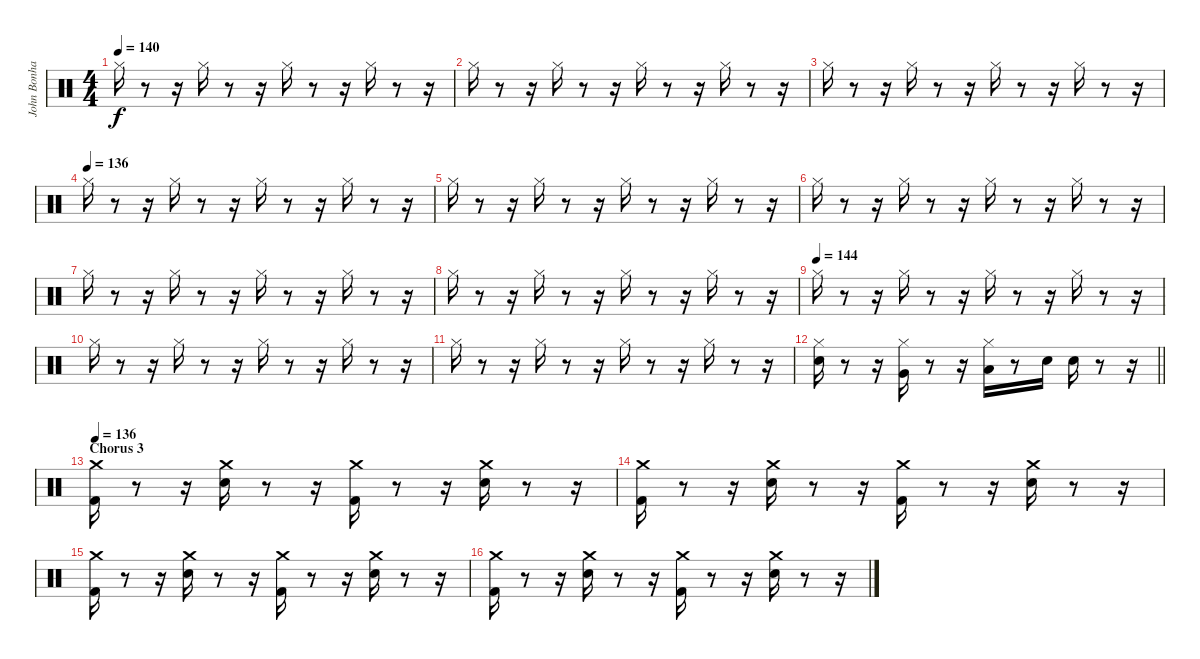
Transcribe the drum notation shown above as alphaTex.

\track ("John Bonham" "John Bonha") {instrument percussion}
\staff {score}
\articulation defaults
\ts (4 4)
\tempo 140
\clef neutral
\ks aminor "Hi-Hat (closed)".16{dy f}
r.8 r.16 "Hi-Hat (closed)".16 r.8 r.16 "Hi-Hat (closed)".16 r.8 r.16 "Hi-Hat (closed)".16 r.8 r.16 |
"Hi-Hat (closed)".16 r.8 r.16 "Hi-Hat (closed)".16 r.8 r.16 "Hi-Hat (closed)".16 r.8 r.16 "Hi-Hat (closed)".16 r.8 r.16 |
"Hi-Hat (closed)".16 r.8 r.16 "Hi-Hat (closed)".16 r.8 r.16 "Hi-Hat (closed)".16 r.8 r.16 "Hi-Hat (closed)".16 r.8 r.16 |
\tempo (136)
"Hi-Hat (closed)".16 r.8 r.16 "Hi-Hat (closed)".16 r.8 r.16 "Hi-Hat (closed)".16 r.8 r.16 "Hi-Hat (closed)".16 r.8 r.16 |
"Hi-Hat (closed)".16 r.8 r.16 "Hi-Hat (closed)".16 r.8 r.16 "Hi-Hat (closed)".16 r.8 r.16 "Hi-Hat (closed)".16 r.8 r.16 |
"Hi-Hat (closed)".16 r.8 r.16 "Hi-Hat (closed)".16 r.8 r.16 "Hi-Hat (closed)".16 r.8 r.16 "Hi-Hat (closed)".16 r.8 r.16 |
"Hi-Hat (closed)".16 r.8 r.16 "Hi-Hat (closed)".16 r.8 r.16 "Hi-Hat (closed)".16 r.8 r.16 "Hi-Hat (closed)".16 r.8 r.16 |
"Hi-Hat (closed)".16 r.8 r.16 "Hi-Hat (closed)".16 r.8 r.16 "Hi-Hat (closed)".16 r.8 r.16 "Hi-Hat (closed)".16 r.8 r.16 |
\tempo (144)
"Hi-Hat (closed)".16 r.8 r.16 "Hi-Hat (closed)".16 r.8 r.16 "Hi-Hat (closed)".16 r.8 r.16 "Hi-Hat (closed)".16 r.8 r.16 |
"Hi-Hat (closed)".16 r.8 r.16 "Hi-Hat (closed)".16 r.8 r.16 "Hi-Hat (closed)".16 r.8 r.16 "Hi-Hat (closed)".16 r.8 r.16 |
"Hi-Hat (closed)".16 r.8 r.16 "Hi-Hat (closed)".16 r.8 r.16 "Hi-Hat (closed)".16 r.8 r.16 "Hi-Hat (closed)".16 r.8 r.16 |
\barLineRight lightlight
("Hi-Hat (closed)" "Electric Snare (hit)").16 r.8 r.16 ("Hi-Hat (closed)" "Very Low Tom (hit)").16 r.8 r.16 ("Hi-Hat (closed)" "Low Tom (hit)").16 r.8 "Electric Snare (hit)".16 "Electric Snare (hit)".16 r.8 r.16 |
\section ("" "Chorus 3")
\tempo 136
("Kick (hit) 2" "Crash medium (hit)").16 r.8 r.16 ("Electric Snare (hit)" "Crash medium (hit)").16 r.8 r.16 ("Kick (hit) 2" "Crash medium (hit)").16 r.8 r.16 ("Electric Snare (hit)" "Crash medium (hit)").16 r.8 r.16 |
("Kick (hit) 2" "Crash medium (hit)").16 r.8 r.16 ("Electric Snare (hit)" "Crash medium (hit)").16 r.8 r.16 ("Kick (hit) 2" "Crash medium (hit)").16 r.8 r.16 ("Electric Snare (hit)" "Crash medium (hit)").16 r.8 r.16 |
("Kick (hit) 2" "Crash medium (hit)").16 r.8 r.16 ("Electric Snare (hit)" "Crash medium (hit)").16 r.8 r.16 ("Kick (hit) 2" "Crash medium (hit)").16 r.8 r.16 ("Electric Snare (hit)" "Crash medium (hit)").16 r.8 r.16 |
("Kick (hit) 2" "Crash medium (hit)").16 r.8 r.16 ("Electric Snare (hit)" "Crash medium (hit)").16 r.8 r.16 ("Kick (hit) 2" "Crash medium (hit)").16 r.8 r.16 ("Electric Snare (hit)" "Crash medium (hit)").16 r.8 r.16
